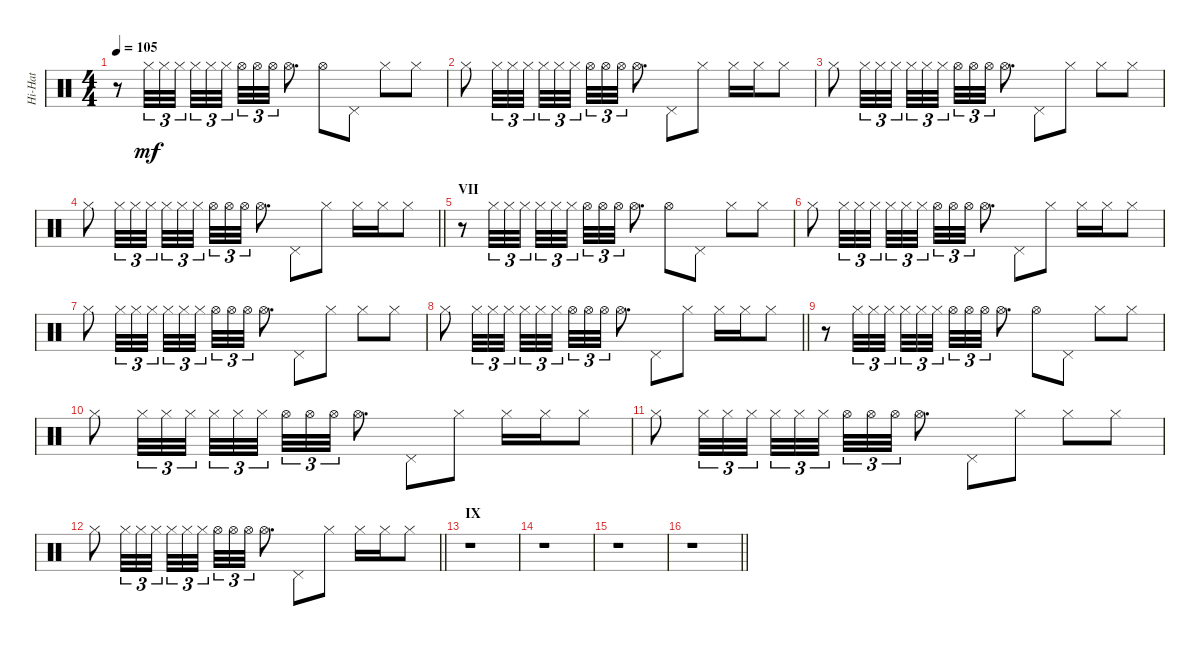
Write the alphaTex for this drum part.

\track ("Hi-Hat" "Hi-Hat") {instrument percussion}
\staff {score}
\articulation defaults
\ts (4 4)
\tempo 105
\clef neutral
\ks c
r.8{dy mf} "Hi-Hat (closed)".32{tu (3 2)} "Hi-Hat (closed)".32{tu (3 2)} "Hi-Hat (closed)".32{tu (3 2) beam splitsecondary} "Hi-Hat (closed)".32{tu (3 2)} "Hi-Hat (closed)".32{tu (3 2)} "Hi-Hat (closed)".32{tu (3 2)} "Hi-Hat (open)".32{tu (3 2)} "Hi-Hat (open)".32{tu (3 2)} "Hi-Hat (open)".32{tu (3 2)} "Hi-Hat (open)".8{d} "Hi-Hat (open)".8 "Pedal Hi-Hat (hit)".8 "Hi-Hat (closed)".8 "Hi-Hat (closed)".8 |
"Hi-Hat (closed)".8 "Hi-Hat (closed)".32{tu (3 2)} "Hi-Hat (closed)".32{tu (3 2)} "Hi-Hat (closed)".32{tu (3 2) beam splitsecondary} "Hi-Hat (closed)".32{tu (3 2)} "Hi-Hat (closed)".32{tu (3 2)} "Hi-Hat (closed)".32{tu (3 2)} "Hi-Hat (open)".32{tu (3 2)} "Hi-Hat (open)".32{tu (3 2)} "Hi-Hat (open)".32{tu (3 2)} "Hi-Hat (open)".8{d} "Pedal Hi-Hat (hit)".8 "Hi-Hat (closed)".8 "Hi-Hat (closed)".16 "Hi-Hat (closed)".16 "Hi-Hat (closed)".8 |
"Hi-Hat (closed)".8 "Hi-Hat (closed)".32{tu (3 2)} "Hi-Hat (closed)".32{tu (3 2)} "Hi-Hat (closed)".32{tu (3 2) beam splitsecondary} "Hi-Hat (closed)".32{tu (3 2)} "Hi-Hat (closed)".32{tu (3 2)} "Hi-Hat (closed)".32{tu (3 2)} "Hi-Hat (open)".32{tu (3 2)} "Hi-Hat (open)".32{tu (3 2)} "Hi-Hat (open)".32{tu (3 2)} "Hi-Hat (open)".8{d} "Pedal Hi-Hat (hit)".8 "Hi-Hat (closed)".8 "Hi-Hat (closed)".8 "Hi-Hat (closed)".8 |
\barLineRight lightlight "Hi-Hat (closed)".8 "Hi-Hat (closed)".32{tu (3 2)} "Hi-Hat (closed)".32{tu (3 2)} "Hi-Hat (closed)".32{tu (3 2) beam splitsecondary} "Hi-Hat (closed)".32{tu (3 2)} "Hi-Hat (closed)".32{tu (3 2)} "Hi-Hat (closed)".32{tu (3 2)} "Hi-Hat (open)".32{tu (3 2)} "Hi-Hat (open)".32{tu (3 2)} "Hi-Hat (open)".32{tu (3 2)} "Hi-Hat (open)".8{d} "Pedal Hi-Hat (hit)".8 "Hi-Hat (closed)".8 "Hi-Hat (closed)".16 "Hi-Hat (closed)".16 "Hi-Hat (closed)".8
|
\section ("" "VII")
r.8 "Hi-Hat (closed)".32{tu (3 2)} "Hi-Hat (closed)".32{tu (3 2)} "Hi-Hat (closed)".32{tu (3 2) beam splitsecondary} "Hi-Hat (closed)".32{tu (3 2)} "Hi-Hat (closed)".32{tu (3 2)} "Hi-Hat (closed)".32{tu (3 2)} "Hi-Hat (open)".32{tu (3 2)} "Hi-Hat (open)".32{tu (3 2)} "Hi-Hat (open)".32{tu (3 2)} "Hi-Hat (open)".8{d} "Hi-Hat (open)".8 "Pedal Hi-Hat (hit)".8 "Hi-Hat (closed)".8 "Hi-Hat (closed)".8 |
"Hi-Hat (closed)".8 "Hi-Hat (closed)".32{tu (3 2)} "Hi-Hat (closed)".32{tu (3 2)} "Hi-Hat (closed)".32{tu (3 2) beam splitsecondary} "Hi-Hat (closed)".32{tu (3 2)} "Hi-Hat (closed)".32{tu (3 2)} "Hi-Hat (closed)".32{tu (3 2)} "Hi-Hat (open)".32{tu (3 2)} "Hi-Hat (open)".32{tu (3 2)} "Hi-Hat (open)".32{tu (3 2)} "Hi-Hat (open)".8{d} "Pedal Hi-Hat (hit)".8 "Hi-Hat (closed)".8 "Hi-Hat (closed)".16 "Hi-Hat (closed)".16 "Hi-Hat (closed)".8 |
"Hi-Hat (closed)".8 "Hi-Hat (closed)".32{tu (3 2)} "Hi-Hat (closed)".32{tu (3 2)} "Hi-Hat (closed)".32{tu (3 2) beam splitsecondary} "Hi-Hat (closed)".32{tu (3 2)} "Hi-Hat (closed)".32{tu (3 2)} "Hi-Hat (closed)".32{tu (3 2)} "Hi-Hat (open)".32{tu (3 2)} "Hi-Hat (open)".32{tu (3 2)} "Hi-Hat (open)".32{tu (3 2)} "Hi-Hat (open)".8{d} "Pedal Hi-Hat (hit)".8 "Hi-Hat (closed)".8 "Hi-Hat (closed)".8 "Hi-Hat (closed)".8 |
\barLineRight lightlight "Hi-Hat (closed)".8 "Hi-Hat (closed)".32{tu (3 2)} "Hi-Hat (closed)".32{tu (3 2)} "Hi-Hat (closed)".32{tu (3 2) beam splitsecondary} "Hi-Hat (closed)".32{tu (3 2)} "Hi-Hat (closed)".32{tu (3 2)} "Hi-Hat (closed)".32{tu (3 2)} "Hi-Hat (open)".32{tu (3 2)} "Hi-Hat (open)".32{tu (3 2)} "Hi-Hat (open)".32{tu (3 2)} "Hi-Hat (open)".8{d} "Pedal Hi-Hat (hit)".8 "Hi-Hat (closed)".8 "Hi-Hat (closed)".16 "Hi-Hat (closed)".16 "Hi-Hat (closed)".8
|
r.8 "Hi-Hat (closed)".32{tu (3 2)} "Hi-Hat (closed)".32{tu (3 2)} "Hi-Hat (closed)".32{tu (3 2) beam splitsecondary} "Hi-Hat (closed)".32{tu (3 2)} "Hi-Hat (closed)".32{tu (3 2)} "Hi-Hat (closed)".32{tu (3 2)} "Hi-Hat (open)".32{tu (3 2)} "Hi-Hat (open)".32{tu (3 2)} "Hi-Hat (open)".32{tu (3 2)} "Hi-Hat (open)".8{d} "Hi-Hat (open)".8 "Pedal Hi-Hat (hit)".8 "Hi-Hat (closed)".8 "Hi-Hat (closed)".8 |
"Hi-Hat (closed)".8 "Hi-Hat (closed)".32{tu (3 2)} "Hi-Hat (closed)".32{tu (3 2)} "Hi-Hat (closed)".32{tu (3 2) beam splitsecondary} "Hi-Hat (closed)".32{tu (3 2)} "Hi-Hat (closed)".32{tu (3 2)} "Hi-Hat (closed)".32{tu (3 2)} "Hi-Hat (open)".32{tu (3 2)} "Hi-Hat (open)".32{tu (3 2)} "Hi-Hat (open)".32{tu (3 2)} "Hi-Hat (open)".8{d} "Pedal Hi-Hat (hit)".8 "Hi-Hat (closed)".8 "Hi-Hat (closed)".16 "Hi-Hat (closed)".16 "Hi-Hat (closed)".8 |
"Hi-Hat (closed)".8 "Hi-Hat (closed)".32{tu (3 2)} "Hi-Hat (closed)".32{tu (3 2)} "Hi-Hat (closed)".32{tu (3 2) beam splitsecondary} "Hi-Hat (closed)".32{tu (3 2)} "Hi-Hat (closed)".32{tu (3 2)} "Hi-Hat (closed)".32{tu (3 2)} "Hi-Hat (open)".32{tu (3 2)} "Hi-Hat (open)".32{tu (3 2)} "Hi-Hat (open)".32{tu (3 2)} "Hi-Hat (open)".8{d} "Pedal Hi-Hat (hit)".8 "Hi-Hat (closed)".8 "Hi-Hat (closed)".8 "Hi-Hat (closed)".8 |
\barLineRight lightlight "Hi-Hat (closed)".8 "Hi-Hat (closed)".32{tu (3 2)} "Hi-Hat (closed)".32{tu (3 2)} "Hi-Hat (closed)".32{tu (3 2) beam splitsecondary} "Hi-Hat (closed)".32{tu (3 2)} "Hi-Hat (closed)".32{tu (3 2)} "Hi-Hat (closed)".32{tu (3 2)} "Hi-Hat (open)".32{tu (3 2)} "Hi-Hat (open)".32{tu (3 2)} "Hi-Hat (open)".32{tu (3 2)} "Hi-Hat (open)".8{d} "Pedal Hi-Hat (hit)".8 "Hi-Hat (closed)".8 "Hi-Hat (closed)".16 "Hi-Hat (closed)".16 "Hi-Hat (closed)".8
|
\section ("" "IX")
r.1 |
r.1 |
r.1 |
\barLineRight lightlight
r.1
